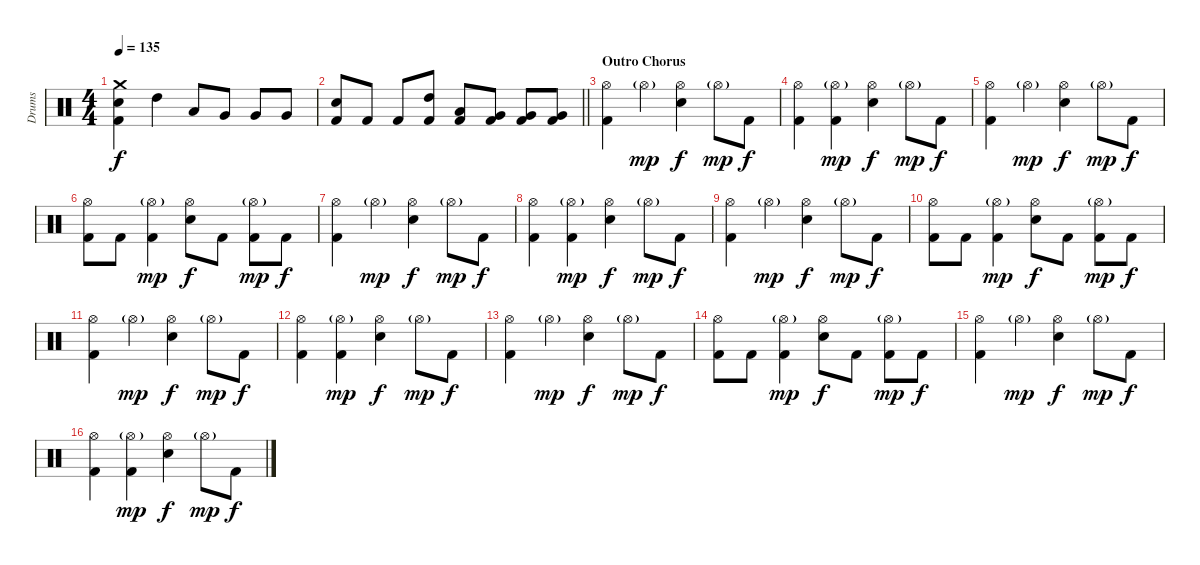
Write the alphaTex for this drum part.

\track ("Drums" "Drums") {instrument percussion}
\staff {score}
\articulation defaults
\ts (4 4)
\tempo 135
\clef neutral
\ks c
("Crash medium (hit)" "Electric Snare (hit)" "Kick (hit) 2").4{dy f} "High Tom (hit)".4 "Low Tom (hit)".8 "Very Low Tom (hit)".8 "Very Low Tom (hit)".8 "Very Low Tom (hit)".8 |
\barLineRight lightlight
("Electric Snare (hit)" "Kick (hit) 2").8 "Kick (hit) 2".8 "Kick (hit) 2".8 ("High Tom (hit)" "Kick (hit) 2").8 ("Low Tom (hit)" "Kick (hit) 2").8 ("Very Low Tom (hit)" "Kick (hit) 2").8 ("Very Low Tom (hit)" "Kick (hit) 2").8 ("Very Low Tom (hit)" "Kick (hit) 2").8 |
\section ("" "Outro Chorus")
("Hi-Hat (open)" "Kick (hit) 2").4 "Hi-Hat (open)"{g}.4{dy mp} ("Hi-Hat (open)" "Electric Snare (hit)").4{dy f} "Hi-Hat (open)"{g}.8{dy mp} "Kick (hit) 2".8{dy f} |
("Hi-Hat (open)" "Kick (hit) 2").4 ("Hi-Hat (open)"{g} "Kick (hit) 2").4{dy mp} ("Hi-Hat (open)" "Electric Snare (hit)").4{dy f} "Hi-Hat (open)"{g}.8{dy mp} "Kick (hit) 2".8{dy f} |
("Hi-Hat (open)" "Kick (hit) 2").4 "Hi-Hat (open)"{g}.4{dy mp} ("Hi-Hat (open)" "Electric Snare (hit)").4{dy f} "Hi-Hat (open)"{g}.8{dy mp} "Kick (hit) 2".8{dy f} |
("Hi-Hat (open)" "Kick (hit) 2").8 "Kick (hit) 2".8 ("Hi-Hat (open)"{g} "Kick (hit) 2").4{dy mp} ("Hi-Hat (open)" "Electric Snare (hit)").8{dy f} "Kick (hit) 2".8 ("Hi-Hat (open)"{g} "Kick (hit) 2").8{dy mp} "Kick (hit) 2".8{dy f} |
("Hi-Hat (open)" "Kick (hit) 2").4 "Hi-Hat (open)"{g}.4{dy mp} ("Hi-Hat (open)" "Electric Snare (hit)").4{dy f} "Hi-Hat (open)"{g}.8{dy mp} "Kick (hit) 2".8{dy f} |
("Hi-Hat (open)" "Kick (hit) 2").4 ("Hi-Hat (open)"{g} "Kick (hit) 2").4{dy mp} ("Hi-Hat (open)" "Electric Snare (hit)").4{dy f} "Hi-Hat (open)"{g}.8{dy mp} "Kick (hit) 2".8{dy f} |
("Hi-Hat (open)" "Kick (hit) 2").4 "Hi-Hat (open)"{g}.4{dy mp} ("Hi-Hat (open)" "Electric Snare (hit)").4{dy f} "Hi-Hat (open)"{g}.8{dy mp} "Kick (hit) 2".8{dy f} |
("Hi-Hat (open)" "Kick (hit) 2").8 "Kick (hit) 2".8 ("Hi-Hat (open)"{g} "Kick (hit) 2").4{dy mp} ("Hi-Hat (open)" "Electric Snare (hit)").8{dy f} "Kick (hit) 2".8 ("Hi-Hat (open)"{g} "Kick (hit) 2").8{dy mp} "Kick (hit) 2".8{dy f} |
("Hi-Hat (open)" "Kick (hit) 2").4 "Hi-Hat (open)"{g}.4{dy mp} ("Hi-Hat (open)" "Electric Snare (hit)").4{dy f} "Hi-Hat (open)"{g}.8{dy mp} "Kick (hit) 2".8{dy f} |
("Hi-Hat (open)" "Kick (hit) 2").4 ("Hi-Hat (open)"{g} "Kick (hit) 2").4{dy mp} ("Hi-Hat (open)" "Electric Snare (hit)").4{dy f} "Hi-Hat (open)"{g}.8{dy mp} "Kick (hit) 2".8{dy f} |
("Hi-Hat (open)" "Kick (hit) 2").4 "Hi-Hat (open)"{g}.4{dy mp} ("Hi-Hat (open)" "Electric Snare (hit)").4{dy f} "Hi-Hat (open)"{g}.8{dy mp} "Kick (hit) 2".8{dy f} |
("Hi-Hat (open)" "Kick (hit) 2").8 "Kick (hit) 2".8 ("Hi-Hat (open)"{g} "Kick (hit) 2").4{dy mp} ("Hi-Hat (open)" "Electric Snare (hit)").8{dy f} "Kick (hit) 2".8 ("Hi-Hat (open)"{g} "Kick (hit) 2").8{dy mp} "Kick (hit) 2".8{dy f} |
("Hi-Hat (open)" "Kick (hit) 2").4 "Hi-Hat (open)"{g}.4{dy mp} ("Hi-Hat (open)" "Electric Snare (hit)").4{dy f} "Hi-Hat (open)"{g}.8{dy mp} "Kick (hit) 2".8{dy f} |
("Hi-Hat (open)" "Kick (hit) 2").4 ("Hi-Hat (open)"{g} "Kick (hit) 2").4{dy mp} ("Hi-Hat (open)" "Electric Snare (hit)").4{dy f} "Hi-Hat (open)"{g}.8{dy mp} "Kick (hit) 2".8{dy f}
